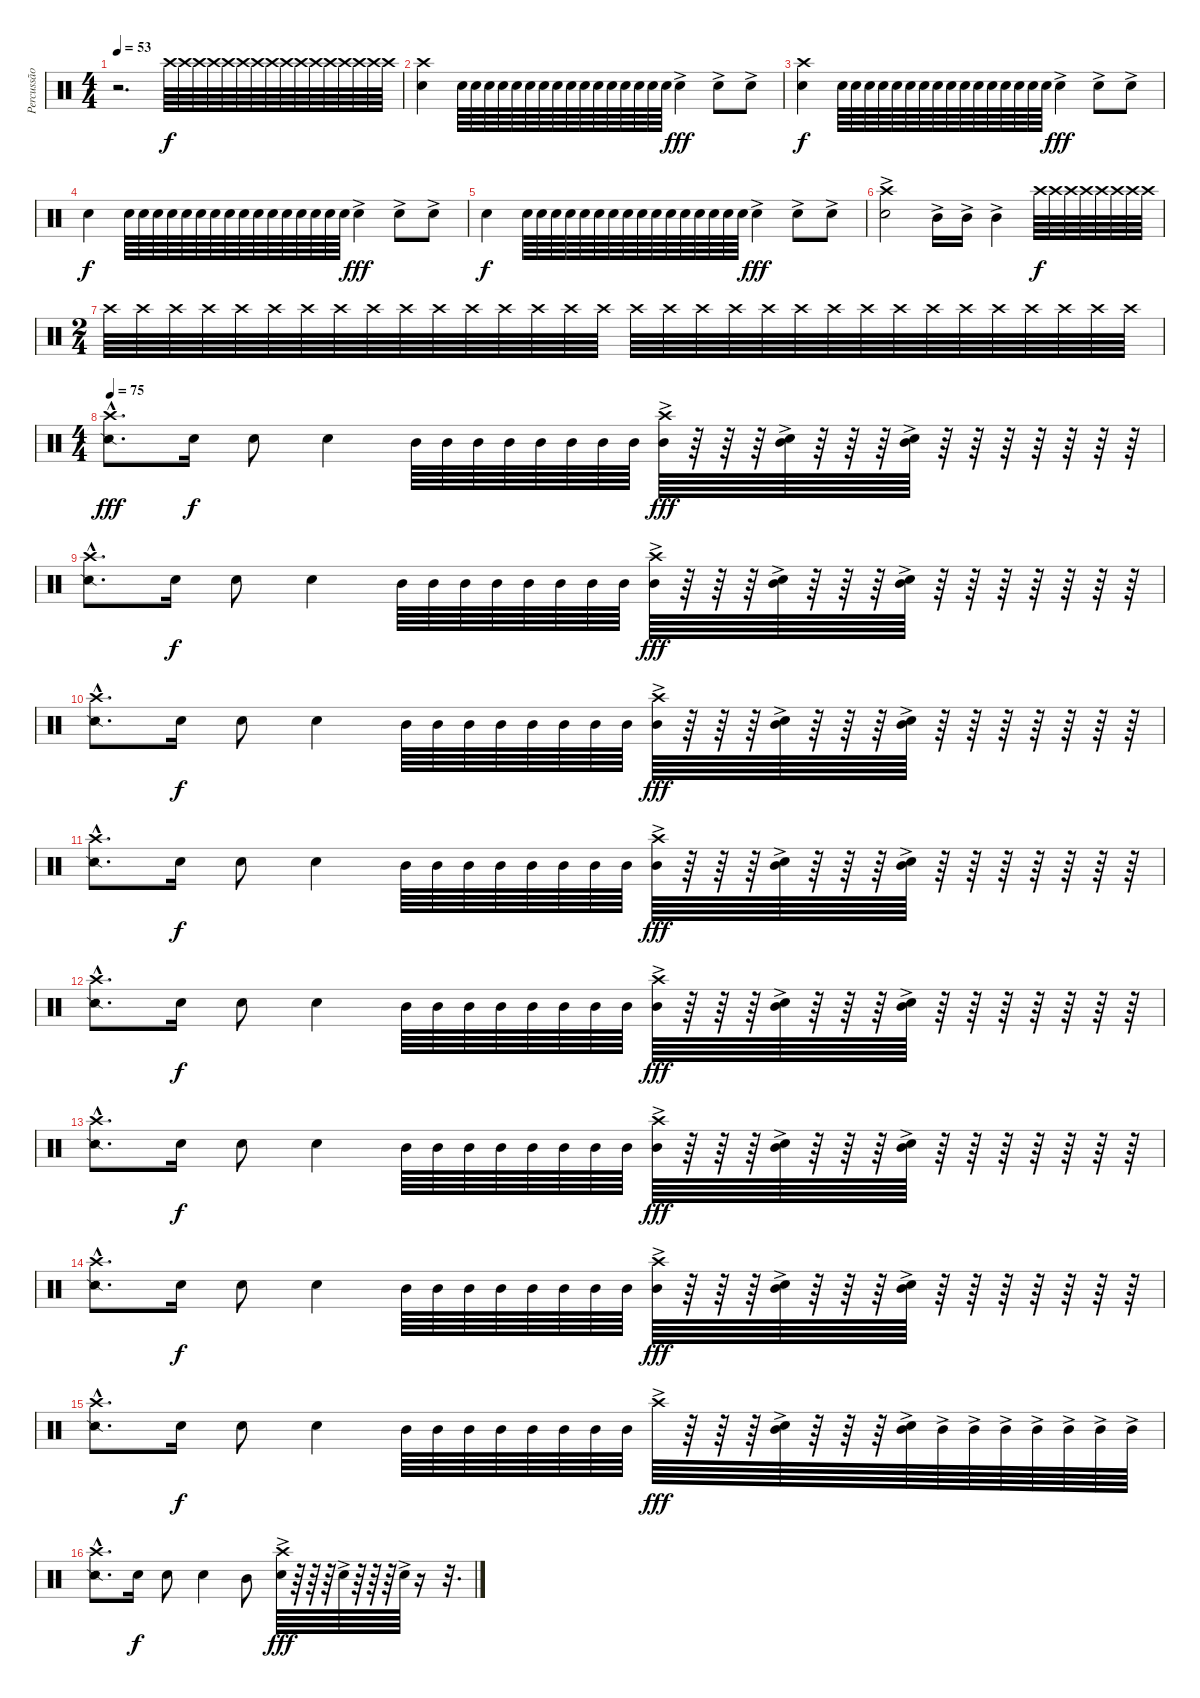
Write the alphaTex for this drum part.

\track ("Percussão" "Percussão") {instrument percussion}
\staff {score}
\articulation defaults
\ts (4 4)
\tempo 53
\clef neutral
\ks c
r.2{d dy f} "Crash high (hit)".64{volume 2} "Crash high (hit)".64 "Crash high (hit)".64{volume 3} "Crash high (hit)".64 "Crash high (hit)".64{volume 4} "Crash high (hit)".64 "Crash high (hit)".64{volume 5} "Crash high (hit)".64 "Crash high (hit)".64{volume 6} "Crash high (hit)".64 "Crash high (hit)".64{volume 7} "Crash high (hit)".64 "Crash high (hit)".64{volume 8} "Crash high (hit)".64 "Crash high (hit)".64{volume 9} "Crash high (hit)".64 |
("Crash high (hit)" "Snare (hit) 2").4{volume 12} "Snare (hit) 2".64{volume 9} "Snare (hit) 2".64 "Snare (hit) 2".64 "Snare (hit) 2".64 "Snare (hit) 2".64 "Snare (hit) 2".64 "Snare (hit) 2".64 "Snare (hit) 2".64 "Snare (hit) 2".64 "Snare (hit) 2".64 "Snare (hit) 2".64 "Snare (hit) 2".64 "Snare (hit) 2".64 "Snare (hit) 2".64 "Snare (hit) 2".64 "Snare (hit) 2".64 "Snare (hit) 2"{ac}.4{dy fff} "Snare (hit) 2"{ac}.8 "Snare (hit) 2"{ac}.8 |
("Crash high (hit)" "Snare (hit) 2").4{dy f volume 12} "Snare (hit) 2".64{volume 9} "Snare (hit) 2".64 "Snare (hit) 2".64 "Snare (hit) 2".64 "Snare (hit) 2".64 "Snare (hit) 2".64 "Snare (hit) 2".64 "Snare (hit) 2".64 "Snare (hit) 2".64 "Snare (hit) 2".64 "Snare (hit) 2".64 "Snare (hit) 2".64 "Snare (hit) 2".64 "Snare (hit) 2".64 "Snare (hit) 2".64 "Snare (hit) 2".64 "Snare (hit) 2"{ac}.4{dy fff} "Snare (hit) 2"{ac}.8 "Snare (hit) 2"{ac}.8 |
"Snare (hit) 2".4{dy f volume 12} "Snare (hit) 2".64{volume 9} "Snare (hit) 2".64 "Snare (hit) 2".64 "Snare (hit) 2".64 "Snare (hit) 2".64 "Snare (hit) 2".64 "Snare (hit) 2".64 "Snare (hit) 2".64 "Snare (hit) 2".64 "Snare (hit) 2".64 "Snare (hit) 2".64 "Snare (hit) 2".64 "Snare (hit) 2".64 "Snare (hit) 2".64 "Snare (hit) 2".64 "Snare (hit) 2".64 "Snare (hit) 2"{ac}.4{dy fff} "Snare (hit) 2"{ac}.8 "Snare (hit) 2"{ac}.8 |
"Snare (hit) 2".4{dy f volume 12} "Snare (hit) 2".64{volume 9} "Snare (hit) 2".64 "Snare (hit) 2".64 "Snare (hit) 2".64 "Snare (hit) 2".64 "Snare (hit) 2".64 "Snare (hit) 2".64 "Snare (hit) 2".64 "Snare (hit) 2".64 "Snare (hit) 2".64 "Snare (hit) 2".64 "Snare (hit) 2".64 "Snare (hit) 2".64 "Snare (hit) 2".64 "Snare (hit) 2".64 "Snare (hit) 2".64 "Snare (hit) 2"{ac}.4{dy fff} "Snare (hit) 2"{ac}.8 "Snare (hit) 2"{ac}.8 |
("Crash high (hit)" "Snare (hit) 2"{ac}).2 "Mid Tom (hit)"{ac}.16 "Mid Tom (hit)"{ac}.16 "Mid Tom (hit)"{ac}.4 "Crash high (hit)".64{dy f volume 1} "Crash high (hit)".64 "Crash high (hit)".64{volume 2} "Crash high (hit)".64 "Crash high (hit)".64{volume 3} "Crash high (hit)".64 "Crash high (hit)".64{volume 4} "Crash high (hit)".64 |
\ts (2 4)
"Crash high (hit)".64{volume 5} "Crash high (hit)".64 "Crash high (hit)".64{volume 6} "Crash high (hit)".64 "Crash high (hit)".64{volume 7} "Crash high (hit)".64 "Crash high (hit)".64{volume 8} "Crash high (hit)".64 "Crash high (hit)".64 "Crash high (hit)".64 "Crash high (hit)".64 "Crash high (hit)".64 "Crash high (hit)".64 "Crash high (hit)".64 "Crash high (hit)".64 "Crash high (hit)".64 "Crash high (hit)".64 "Crash high (hit)".64 "Crash high (hit)".64 "Crash high (hit)".64 "Crash high (hit)".64 "Crash high (hit)".64 "Crash high (hit)".64 "Crash high (hit)".64 "Crash high (hit)".64 "Crash high (hit)".64 "Crash high (hit)".64 "Crash high (hit)".64 "Crash high (hit)".64 "Crash high (hit)".64 "Crash high (hit)".64 "Crash high (hit)".64 |
\ts (4 4)
\tempo 75
("Crash high (hit)"{hac} "Snare (side stick) 2"{hac}).8{d dy fff volume 10} "Snare (hit) 2".16{dy f} "Snare (hit) 2".8 "Snare (hit) 2".4 "Mid Tom (hit)".64{volume 9} "Mid Tom (hit)".64 "Mid Tom (hit)".64 "Mid Tom (hit)".64 "Mid Tom (hit)".64 "Mid Tom (hit)".64 "Mid Tom (hit)".64 "Mid Tom (hit)".64 ("Crash high (hit)"{ac} "Mid Tom (hit)").64{dy fff} r.64 r.64 r.64 ("Snare (hit) 2"{ac} "Mid Tom (hit)").64 r.64 r.64 r.64 ("Snare (hit) 2"{ac} "Mid Tom (hit)").64 r.64 r.64 r.64 r.64 r.64 r.64 r.64 |
("Crash high (hit)"{hac} "Snare (side stick) 2"{hac}).8{d volume 10} "Snare (hit) 2".16{dy f} "Snare (hit) 2".8 "Snare (hit) 2".4 "Mid Tom (hit)".64{volume 9} "Mid Tom (hit)".64 "Mid Tom (hit)".64 "Mid Tom (hit)".64 "Mid Tom (hit)".64 "Mid Tom (hit)".64 "Mid Tom (hit)".64 "Mid Tom (hit)".64 ("Crash high (hit)"{ac} "Mid Tom (hit)").64{dy fff} r.64 r.64 r.64 ("Snare (hit) 2"{ac} "Mid Tom (hit)").64 r.64 r.64 r.64 ("Snare (hit) 2"{ac} "Mid Tom (hit)").64 r.64 r.64 r.64 r.64 r.64 r.64 r.64 |
("Crash high (hit)"{hac} "Snare (side stick) 2"{hac}).8{d volume 10} "Snare (hit) 2".16{dy f} "Snare (hit) 2".8 "Snare (hit) 2".4 "Mid Tom (hit)".64{volume 9} "Mid Tom (hit)".64 "Mid Tom (hit)".64 "Mid Tom (hit)".64 "Mid Tom (hit)".64 "Mid Tom (hit)".64 "Mid Tom (hit)".64 "Mid Tom (hit)".64 ("Crash high (hit)"{ac} "Mid Tom (hit)").64{dy fff} r.64 r.64 r.64 ("Snare (hit) 2"{ac} "Mid Tom (hit)").64 r.64 r.64 r.64 ("Snare (hit) 2"{ac} "Mid Tom (hit)").64 r.64 r.64 r.64 r.64 r.64 r.64 r.64 |
("Crash high (hit)"{hac} "Snare (side stick) 2"{hac}).8{d volume 10} "Snare (hit) 2".16{dy f} "Snare (hit) 2".8 "Snare (hit) 2".4 "Mid Tom (hit)".64{volume 9} "Mid Tom (hit)".64 "Mid Tom (hit)".64 "Mid Tom (hit)".64 "Mid Tom (hit)".64 "Mid Tom (hit)".64 "Mid Tom (hit)".64 "Mid Tom (hit)".64 ("Crash high (hit)"{ac} "Mid Tom (hit)").64{dy fff} r.64 r.64 r.64 ("Snare (hit) 2"{ac} "Mid Tom (hit)").64 r.64 r.64 r.64 ("Snare (hit) 2"{ac} "Mid Tom (hit)").64 r.64 r.64 r.64 r.64 r.64 r.64 r.64 |
("Crash high (hit)"{hac} "Snare (side stick) 2"{hac}).8{d volume 10} "Snare (hit) 2".16{dy f} "Snare (hit) 2".8 "Snare (hit) 2".4 "Mid Tom (hit)".64{volume 9} "Mid Tom (hit)".64 "Mid Tom (hit)".64 "Mid Tom (hit)".64 "Mid Tom (hit)".64 "Mid Tom (hit)".64 "Mid Tom (hit)".64 "Mid Tom (hit)".64 ("Crash high (hit)"{ac} "Mid Tom (hit)").64{dy fff} r.64 r.64 r.64 ("Snare (hit) 2"{ac} "Mid Tom (hit)").64 r.64 r.64 r.64 ("Snare (hit) 2"{ac} "Mid Tom (hit)").64 r.64 r.64 r.64 r.64 r.64 r.64 r.64 |
("Crash high (hit)"{hac} "Snare (side stick) 2"{hac}).8{d volume 10} "Snare (hit) 2".16{dy f} "Snare (hit) 2".8 "Snare (hit) 2".4 "Mid Tom (hit)".64{volume 9} "Mid Tom (hit)".64 "Mid Tom (hit)".64 "Mid Tom (hit)".64 "Mid Tom (hit)".64 "Mid Tom (hit)".64 "Mid Tom (hit)".64 "Mid Tom (hit)".64 ("Crash high (hit)"{ac} "Mid Tom (hit)").64{dy fff} r.64 r.64 r.64 ("Snare (hit) 2"{ac} "Mid Tom (hit)").64 r.64 r.64 r.64 ("Snare (hit) 2"{ac} "Mid Tom (hit)").64 r.64 r.64 r.64 r.64 r.64 r.64 r.64 |
("Crash high (hit)"{hac} "Snare (side stick) 2"{hac}).8{d volume 10} "Snare (hit) 2".16{dy f} "Snare (hit) 2".8 "Snare (hit) 2".4 "Mid Tom (hit)".64{volume 9} "Mid Tom (hit)".64 "Mid Tom (hit)".64 "Mid Tom (hit)".64 "Mid Tom (hit)".64 "Mid Tom (hit)".64 "Mid Tom (hit)".64 "Mid Tom (hit)".64 ("Crash high (hit)"{ac} "Mid Tom (hit)").64{dy fff} r.64 r.64 r.64 ("Snare (hit) 2"{ac} "Mid Tom (hit)").64 r.64 r.64 r.64 ("Snare (hit) 2"{ac} "Mid Tom (hit)").64 r.64 r.64 r.64 r.64 r.64 r.64 r.64 |
("Crash high (hit)"{hac} "Snare (side stick) 2"{hac}).8{d volume 10} "Snare (hit) 2".16{dy f} "Snare (hit) 2".8 "Snare (hit) 2".4 "Mid Tom (hit)".64{volume 9} "Mid Tom (hit)".64 "Mid Tom (hit)".64 "Mid Tom (hit)".64 "Mid Tom (hit)".64 "Mid Tom (hit)".64 "Mid Tom (hit)".64 "Mid Tom (hit)".64 "Crash high (hit)"{ac}.64{dy fff} r.64 r.64 r.64 ("Snare (hit) 2"{ac} "Mid Tom (hit)").64 r.64 r.64 r.64 ("Snare (hit) 2"{ac} "Mid Tom (hit)").64 "Mid Tom (hit)"{ac}.64 "Mid Tom (hit)"{ac}.64 "Mid Tom (hit)"{ac}.64 "Mid Tom (hit)"{ac}.64 "Mid Tom (hit)"{ac}.64 "Mid Tom (hit)"{ac}.64 "Mid Tom (hit)"{ac}.64 |
("Crash high (hit)"{hac} "Snare (side stick) 2"{hac}).8{d volume 10} "Snare (hit) 2".16{dy f} "Snare (hit) 2".8 "Snare (hit) 2".4 "Mid Tom (hit)".8{volume 9} ("Crash high (hit)"{ac} "Snare (hit) 2").64{dy fff} r.64 r.64 r.64 "Snare (hit) 2"{ac}.64 r.64 r.64 r.64 "Snare (hit) 2"{ac}.64 r.16 r.32{d}
